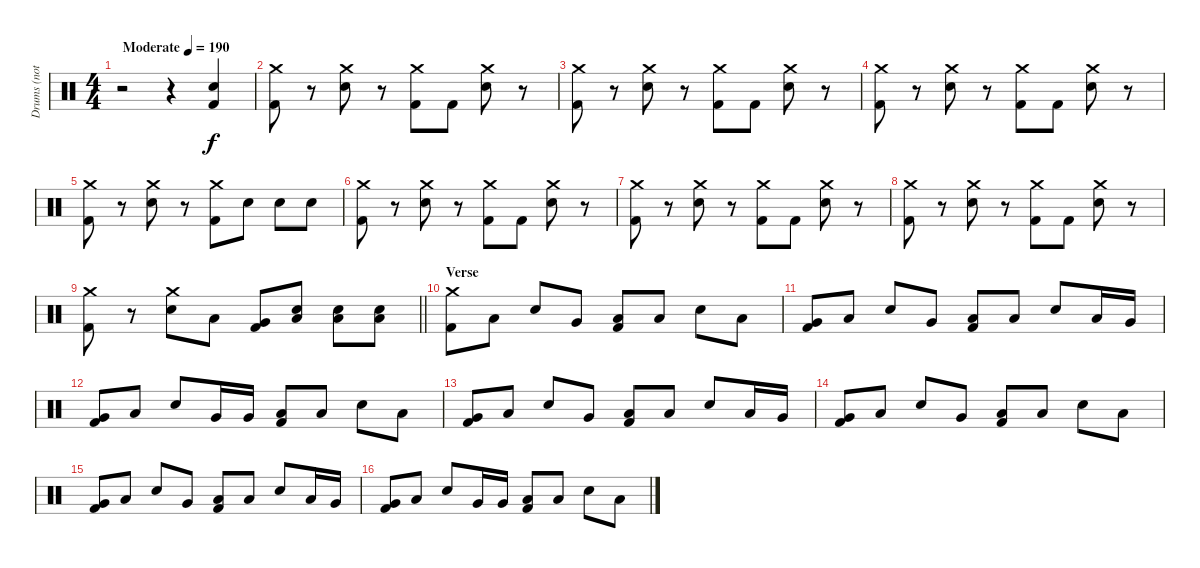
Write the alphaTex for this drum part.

\track ("Drums (not correct)" "Drums (not") {instrument percussion}
\staff {score}
\articulation defaults
\ts (4 4)
\tempo (190 "Moderate")
\clef neutral
\ks c
r.2{dy f} r.4 ("Electric Snare (hit)" "Kick (hit) 2").4 |
("Crash medium (hit)" "Kick (hit) 2").8 r.8 ("Crash medium (hit)" "Electric Snare (hit)").8 r.8 ("Crash medium (hit)" "Kick (hit) 2").8 "Kick (hit) 2".8 ("Crash medium (hit)" "Electric Snare (hit)").8 r.8 |
("Crash medium (hit)" "Kick (hit) 2").8 r.8 ("Crash medium (hit)" "Electric Snare (hit)").8 r.8 ("Crash medium (hit)" "Kick (hit) 2").8 "Kick (hit) 2".8 ("Crash medium (hit)" "Electric Snare (hit)").8 r.8 |
("Crash medium (hit)" "Kick (hit) 2").8 r.8 ("Crash medium (hit)" "Electric Snare (hit)").8 r.8 ("Crash medium (hit)" "Kick (hit) 2").8 "Kick (hit) 2".8 ("Crash medium (hit)" "Electric Snare (hit)").8 r.8 |
("Crash medium (hit)" "Kick (hit) 2").8 r.8 ("Crash medium (hit)" "Electric Snare (hit)").8 r.8 ("Crash medium (hit)" "Kick (hit) 2").8 "Electric Snare (hit)".8 "Electric Snare (hit)".8 "Electric Snare (hit)".8 |
("Crash medium (hit)" "Kick (hit) 2").8 r.8 ("Crash medium (hit)" "Electric Snare (hit)").8 r.8 ("Crash medium (hit)" "Kick (hit) 2").8 "Kick (hit) 2".8 ("Crash medium (hit)" "Electric Snare (hit)").8 r.8 |
("Crash medium (hit)" "Kick (hit) 2").8 r.8 ("Crash medium (hit)" "Electric Snare (hit)").8 r.8 ("Crash medium (hit)" "Kick (hit) 2").8 "Kick (hit) 2".8 ("Crash medium (hit)" "Electric Snare (hit)").8 r.8 |
("Crash medium (hit)" "Kick (hit) 2").8 r.8 ("Crash medium (hit)" "Electric Snare (hit)").8 r.8 ("Crash medium (hit)" "Kick (hit) 2").8 "Kick (hit) 2".8 ("Crash medium (hit)" "Electric Snare (hit)").8 r.8 |
\barLineRight lightlight
("Crash medium (hit)" "Kick (hit) 2").8 r.8 ("Crash medium (hit)" "Electric Snare (hit)").8 "Low Tom (hit)".8 ("Very Low Tom (hit)" "Kick (hit) 2").8 ("Low Tom (hit)" "Electric Snare (hit)").8 ("Low Tom (hit)" "Electric Snare (hit)").8 ("Low Tom (hit)" "Electric Snare (hit)").8 |
\section ("" "Verse")
("Crash medium (hit)" "Kick (hit) 2").8 "Low Floor Tom (hit)".8 "Electric Snare (hit)".8 "Very Low Tom (hit)".8 ("Low Floor Tom (hit)" "Kick (hit) 2").8 "Low Floor Tom (hit)".8 "Electric Snare (hit)".8 "Low Floor Tom (hit)".8 |
("Very Low Tom (hit)" "Kick (hit) 2").8 "Low Floor Tom (hit)".8 "Electric Snare (hit)".8 "Very Low Tom (hit)".8 ("Low Floor Tom (hit)" "Kick (hit) 2").8 "Low Floor Tom (hit)".8 "Electric Snare (hit)".8 "Low Tom (hit)".16 "Very Low Tom (hit)".16 |
("Very Low Tom (hit)" "Kick (hit) 2").8 "Low Floor Tom (hit)".8 "Electric Snare (hit)".8 "Very Low Tom (hit)".16 "Very Low Tom (hit)".16 ("Low Floor Tom (hit)" "Kick (hit) 2").8 "Low Floor Tom (hit)".8 "Electric Snare (hit)".8 "Low Floor Tom (hit)".8 |
("Very Low Tom (hit)" "Kick (hit) 2").8 "Low Floor Tom (hit)".8 "Electric Snare (hit)".8 "Very Low Tom (hit)".8 ("Low Floor Tom (hit)" "Kick (hit) 2").8 "Low Floor Tom (hit)".8 "Electric Snare (hit)".8 "Low Tom (hit)".16 "Very Low Tom (hit)".16 |
("Very Low Tom (hit)" "Kick (hit) 2").8 "Low Floor Tom (hit)".8 "Electric Snare (hit)".8 "Very Low Tom (hit)".8 ("Low Floor Tom (hit)" "Kick (hit) 2").8 "Low Floor Tom (hit)".8 "Electric Snare (hit)".8 "Low Floor Tom (hit)".8 |
("Very Low Tom (hit)" "Kick (hit) 2").8 "Low Floor Tom (hit)".8 "Electric Snare (hit)".8 "Very Low Tom (hit)".8 ("Low Floor Tom (hit)" "Kick (hit) 2").8 "Low Floor Tom (hit)".8 "Electric Snare (hit)".8 "Low Tom (hit)".16 "Very Low Tom (hit)".16 |
("Very Low Tom (hit)" "Kick (hit) 2").8 "Low Floor Tom (hit)".8 "Electric Snare (hit)".8 "Very Low Tom (hit)".16 "Very Low Tom (hit)".16 ("Low Floor Tom (hit)" "Kick (hit) 2").8 "Low Floor Tom (hit)".8 "Electric Snare (hit)".8 "Low Floor Tom (hit)".8
